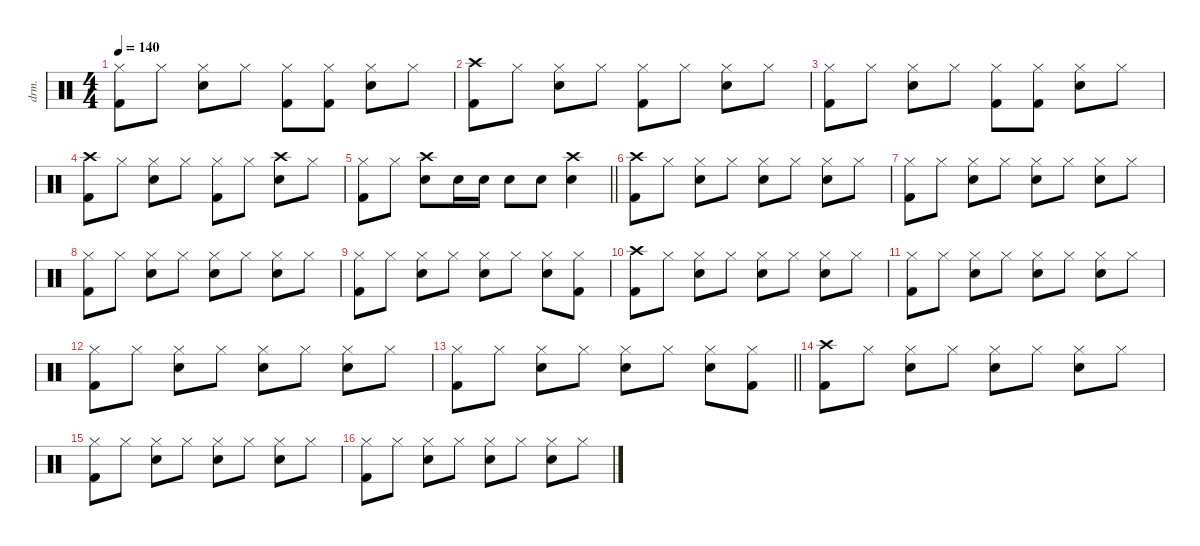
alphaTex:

\defaultSystemsLayout 4
\hideDynamics
\bracketExtendMode nobrackets
\otherSystemsTrackNameOrientation horizontal
\track ("Drums" "drm.") {defaultSystemsLayout 4 instrument percussion}
\staff {score}
\articulation defaults
\ts (4 4)
\tempo 140
\clef neutral
\ks aminor
("Hi-Hat (closed)" "Kick (hit) 2").8{dy f beam Down} "Hi-Hat (closed)".8{beam Down} ("Hi-Hat (closed)" "Snare (hit) 2").8{beam Down} "Hi-Hat (closed)".8{beam Down} ("Hi-Hat (closed)" "Kick (hit) 2").8{beam Down} ("Hi-Hat (closed)" "Kick (hit) 2").8{beam Down} ("Hi-Hat (closed)" "Snare (hit) 2").8{beam Down} "Hi-Hat (closed)".8{beam Down} |
("Crash high (hit)" "Kick (hit) 2").8{beam Down} "Hi-Hat (closed)".8{beam Down} ("Hi-Hat (closed)" "Snare (hit) 2").8{beam Down} "Hi-Hat (closed)".8{beam Down} ("Hi-Hat (closed)" "Kick (hit) 2").8{beam Down} "Hi-Hat (closed)".8{beam Down} ("Hi-Hat (closed)" "Snare (hit) 2").8{beam Down} "Hi-Hat (closed)".8{beam Down} |
("Hi-Hat (closed)" "Kick (hit) 2").8{beam Down} "Hi-Hat (closed)".8{beam Down} ("Hi-Hat (closed)" "Snare (hit) 2").8{beam Down} "Hi-Hat (closed)".8{beam Down} ("Hi-Hat (closed)" "Kick (hit) 2").8{beam Down} ("Hi-Hat (closed)" "Kick (hit) 2").8{beam Down} ("Hi-Hat (closed)" "Snare (hit) 2").8{beam Down} "Hi-Hat (closed)".8{beam Down} |
("Crash high (hit)" "Kick (hit) 2").8{beam Down} "Hi-Hat (closed)".8{beam Down} ("Hi-Hat (closed)" "Snare (hit) 2").8{beam Down} "Hi-Hat (closed)".8{beam Down} ("Hi-Hat (closed)" "Kick (hit) 2").8{beam Down} "Hi-Hat (closed)".8{beam Down} ("Crash high (hit)" "Snare (hit) 2").8{beam Down} "Hi-Hat (closed)".8{beam Down} |
\barLineRight lightlight
("Hi-Hat (closed)" "Kick (hit) 2").8{beam Down} "Hi-Hat (closed)".8{beam Down} ("Crash high (hit)" "Snare (hit) 2").8{beam Down} "Snare (hit) 2".16{beam Down} "Snare (hit) 2".16{beam Down} "Snare (hit) 2".8{beam Down} "Snare (hit) 2".8{beam Down} ("Crash high (hit)" "Snare (hit) 2").4{beam Down} |
("Crash high (hit)" "Kick (hit) 2").8{beam Down} "Hi-Hat (closed)".8{beam Down} ("Hi-Hat (closed)" "Snare (hit) 2").8{beam Down} "Hi-Hat (closed)".8{beam Down} ("Hi-Hat (closed)" "Snare (hit) 2").8{beam Down} "Hi-Hat (closed)".8{beam Down} ("Hi-Hat (closed)" "Snare (hit) 2").8{beam Down} "Hi-Hat (closed)".8{beam Down} |
("Hi-Hat (closed)" "Kick (hit) 2").8{beam Down} "Hi-Hat (closed)".8{beam Down} ("Hi-Hat (closed)" "Snare (hit) 2").8{beam Down} "Hi-Hat (closed)".8{beam Down} ("Hi-Hat (closed)" "Snare (hit) 2").8{beam Down} "Hi-Hat (closed)".8{beam Down} ("Hi-Hat (closed)" "Snare (hit) 2").8{beam Down} "Hi-Hat (closed)".8{beam Down} |
("Hi-Hat (closed)" "Kick (hit) 2").8{beam Down} "Hi-Hat (closed)".8{beam Down} ("Hi-Hat (closed)" "Snare (hit) 2").8{beam Down} "Hi-Hat (closed)".8{beam Down} ("Hi-Hat (closed)" "Snare (hit) 2").8{beam Down} "Hi-Hat (closed)".8{beam Down} ("Hi-Hat (closed)" "Snare (hit) 2").8{beam Down} "Hi-Hat (closed)".8{beam Down} |
("Hi-Hat (closed)" "Kick (hit) 2").8{beam Down} "Hi-Hat (closed)".8{beam Down} ("Hi-Hat (closed)" "Snare (hit) 2").8{beam Down} "Hi-Hat (closed)".8{beam Down} ("Hi-Hat (closed)" "Snare (hit) 2").8{beam Down} "Hi-Hat (closed)".8{beam Down} ("Hi-Hat (closed)" "Snare (hit) 2").8{beam Down} ("Hi-Hat (closed)" "Kick (hit) 2").8{beam Down} |
("Crash high (hit)" "Kick (hit) 2").8{beam Down} "Hi-Hat (closed)".8{beam Down} ("Hi-Hat (closed)" "Snare (hit) 2").8{beam Down} "Hi-Hat (closed)".8{beam Down} ("Hi-Hat (closed)" "Snare (hit) 2").8{beam Down} "Hi-Hat (closed)".8{beam Down} ("Hi-Hat (closed)" "Snare (hit) 2").8{beam Down} "Hi-Hat (closed)".8{beam Down} |
("Hi-Hat (closed)" "Kick (hit) 2").8{beam Down} "Hi-Hat (closed)".8{beam Down} ("Hi-Hat (closed)" "Snare (hit) 2").8{beam Down} "Hi-Hat (closed)".8{beam Down} ("Hi-Hat (closed)" "Snare (hit) 2").8{beam Down} "Hi-Hat (closed)".8{beam Down} ("Hi-Hat (closed)" "Snare (hit) 2").8{beam Down} "Hi-Hat (closed)".8{beam Down} |
("Hi-Hat (closed)" "Kick (hit) 2").8{beam Down} "Hi-Hat (closed)".8{beam Down} ("Hi-Hat (closed)" "Snare (hit) 2").8{beam Down} "Hi-Hat (closed)".8{beam Down} ("Hi-Hat (closed)" "Snare (hit) 2").8{beam Down} "Hi-Hat (closed)".8{beam Down} ("Hi-Hat (closed)" "Snare (hit) 2").8{beam Down} "Hi-Hat (closed)".8{beam Down} |
\barLineRight lightlight
("Hi-Hat (closed)" "Kick (hit) 2").8{beam Down} "Hi-Hat (closed)".8{beam Down} ("Hi-Hat (closed)" "Snare (hit) 2").8{beam Down} "Hi-Hat (closed)".8{beam Down} ("Hi-Hat (closed)" "Snare (hit) 2").8{beam Down} "Hi-Hat (closed)".8{beam Down} ("Hi-Hat (closed)" "Snare (hit) 2").8{beam Down} ("Hi-Hat (closed)" "Kick (hit) 2").8{beam Down} |
("Crash high (hit)" "Kick (hit) 2").8{beam Down} "Hi-Hat (closed)".8{beam Down} ("Hi-Hat (closed)" "Snare (hit) 2").8{beam Down} "Hi-Hat (closed)".8{beam Down} ("Hi-Hat (closed)" "Snare (hit) 2").8{beam Down} "Hi-Hat (closed)".8{beam Down} ("Hi-Hat (closed)" "Snare (hit) 2").8{beam Down} "Hi-Hat (closed)".8{beam Down} |
("Hi-Hat (closed)" "Kick (hit) 2").8{beam Down} "Hi-Hat (closed)".8{beam Down} ("Hi-Hat (closed)" "Snare (hit) 2").8{beam Down} "Hi-Hat (closed)".8{beam Down} ("Hi-Hat (closed)" "Snare (hit) 2").8{beam Down} "Hi-Hat (closed)".8{beam Down} ("Hi-Hat (closed)" "Snare (hit) 2").8{beam Down} "Hi-Hat (closed)".8{beam Down} |
("Hi-Hat (closed)" "Kick (hit) 2").8{beam Down} "Hi-Hat (closed)".8{beam Down} ("Hi-Hat (closed)" "Snare (hit) 2").8{beam Down} "Hi-Hat (closed)".8{beam Down} ("Hi-Hat (closed)" "Snare (hit) 2").8{beam Down} "Hi-Hat (closed)".8{beam Down} ("Hi-Hat (closed)" "Snare (hit) 2").8{beam Down} "Hi-Hat (closed)".8{beam Down}
